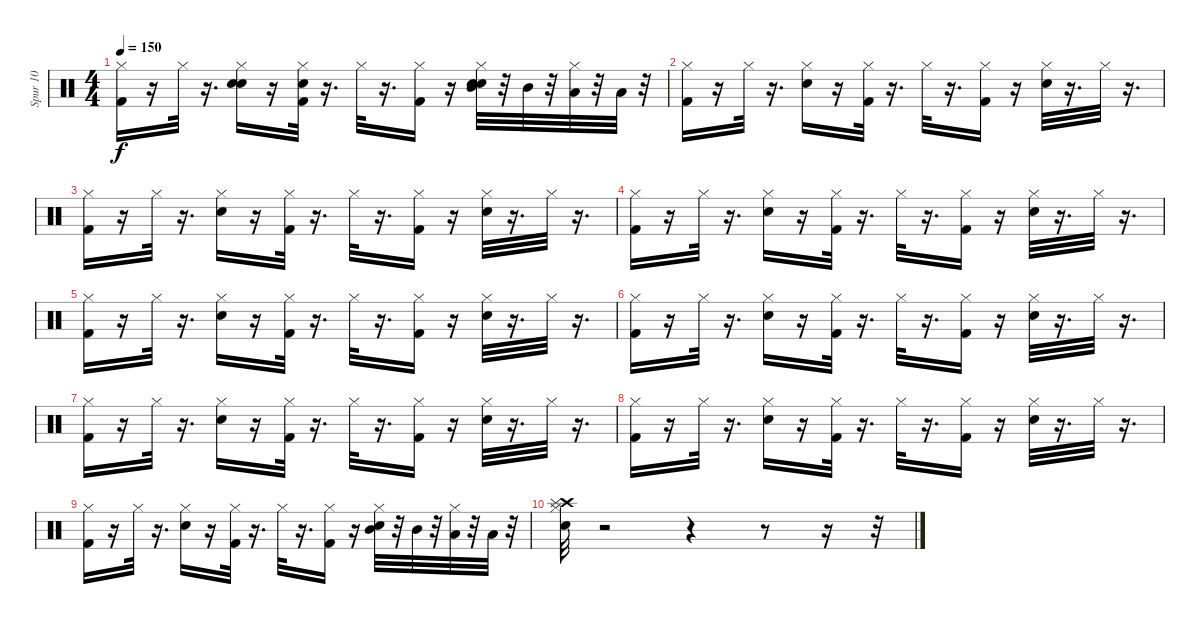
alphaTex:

\track ("Spur 10" "Spur 10") {instrument percussion}
\staff {score}
\articulation defaults
\ts (4 4)
\tempo 150
\clef neutral
\ks c
("Kick (hit) 2" "Hi-Hat (closed)").16{dy f} r.16 "Hi-Hat (closed)".32 r.16{d} ("Electric Snare (hit)" "Hi-Hat (closed)" "Hand Clap (hit)").16 r.16 ("Kick (hit) 2" "Hi-Hat (closed)" "Hand Clap (hit)").32 r.16{d} "Hi-Hat (closed)".32 r.16{d} ("Kick (hit) 2" "Hi-Hat (closed)").16 r.16 ("Electric Snare (hit)" "Hand Clap (hit)" "Mid Tom (hit)" "Hi-Hat (closed)").32 r.32 "Mid Tom (hit)".32 r.32 ("Low Tom (hit)" "Hi-Hat (closed)").32 r.32 "Low Tom (hit)".32 r.32 |
("Hi-Hat (closed)" "Kick (hit) 2").16 r.16 "Hi-Hat (closed)".32 r.16{d} ("Hi-Hat (closed)" "Electric Snare (hit)").16 r.16 ("Kick (hit) 2" "Hi-Hat (closed)").32 r.16{d} "Hi-Hat (closed)".32 r.16{d} ("Hi-Hat (closed)" "Kick (hit) 2").16 r.16 ("Electric Snare (hit)" "Hi-Hat (closed)").32 r.16{d} "Hi-Hat (closed)".32 r.16{d} |
("Kick (hit) 2" "Hi-Hat (closed)").16 r.16 "Hi-Hat (closed)".32 r.16{d} ("Electric Snare (hit)" "Hi-Hat (closed)").16 r.16 ("Kick (hit) 2" "Hi-Hat (closed)").32 r.16{d} "Hi-Hat (closed)".32 r.16{d} ("Kick (hit) 2" "Hi-Hat (closed)").16 r.16 ("Electric Snare (hit)" "Hi-Hat (closed)").32 r.16{d} "Hi-Hat (closed)".32 r.16{d} |
("Hi-Hat (closed)" "Kick (hit) 2").16 r.16 "Hi-Hat (closed)".32 r.16{d} ("Electric Snare (hit)" "Hi-Hat (closed)").16 r.16 ("Kick (hit) 2" "Hi-Hat (closed)").32 r.16{d} "Hi-Hat (closed)".32 r.16{d} ("Kick (hit) 2" "Hi-Hat (closed)").16 r.16 ("Electric Snare (hit)" "Hi-Hat (closed)").32 r.16{d} "Hi-Hat (closed)".32 r.16{d} |
("Kick (hit) 2" "Hi-Hat (closed)").16 r.16 "Hi-Hat (closed)".32 r.16{d} ("Electric Snare (hit)" "Hi-Hat (closed)").16 r.16 ("Kick (hit) 2" "Hi-Hat (closed)").32 r.16{d} "Hi-Hat (closed)".32 r.16{d} ("Kick (hit) 2" "Hi-Hat (closed)").16 r.16 ("Electric Snare (hit)" "Hi-Hat (closed)").32 r.16{d} "Hi-Hat (closed)".32 r.16{d} |
("Hi-Hat (closed)" "Kick (hit) 2").16 r.16 "Hi-Hat (closed)".32 r.16{d} ("Electric Snare (hit)" "Hi-Hat (closed)").16 r.16 ("Hi-Hat (closed)" "Kick (hit) 2").32 r.16{d} "Hi-Hat (closed)".32 r.16{d} ("Kick (hit) 2" "Hi-Hat (closed)").16 r.16 ("Electric Snare (hit)" "Hi-Hat (closed)").32 r.16{d} "Hi-Hat (closed)".32 r.16{d} |
("Kick (hit) 2" "Hi-Hat (closed)").16 r.16 "Hi-Hat (closed)".32 r.16{d} ("Electric Snare (hit)" "Hi-Hat (closed)").16 r.16 ("Kick (hit) 2" "Hi-Hat (closed)").32 r.16{d} "Hi-Hat (closed)".32 r.16{d} ("Kick (hit) 2" "Hi-Hat (closed)").16 r.16 ("Electric Snare (hit)" "Hi-Hat (closed)").32 r.16{d} "Hi-Hat (closed)".32 r.16{d} |
("Kick (hit) 2" "Hi-Hat (closed)").16 r.16 "Hi-Hat (closed)".32 r.16{d} ("Electric Snare (hit)" "Hi-Hat (closed)").16 r.16 ("Kick (hit) 2" "Hi-Hat (closed)").32 r.16{d} "Hi-Hat (closed)".32 r.16{d} ("Kick (hit) 2" "Hi-Hat (closed)").16 r.16 ("Electric Snare (hit)" "Hi-Hat (closed)").32 r.16{d} "Hi-Hat (closed)".32 r.16{d} |
("Kick (hit) 2" "Hi-Hat (closed)").16 r.16 "Hi-Hat (closed)".32 r.16{d} ("Electric Snare (hit)" "Hi-Hat (closed)").16 r.16 ("Kick (hit) 2" "Hi-Hat (closed)").32 r.16{d} "Hi-Hat (closed)".32 r.16{d} ("Kick (hit) 2" "Hi-Hat (closed)").16 r.16 ("Electric Snare (hit)" "Mid Tom (hit)" "Hi-Hat (closed)").32 r.32 "Mid Tom (hit)".32 r.32 ("Low Tom (hit)" "Hi-Hat (closed)").32 r.32 "Low Tom (hit)".32 r.32 |
("Hi-Hat (closed)" "Crash high (hit)" "Splash (hit)" "Electric Snare (hit)").32 r.2 r.4 r.8 r.16 r.32
